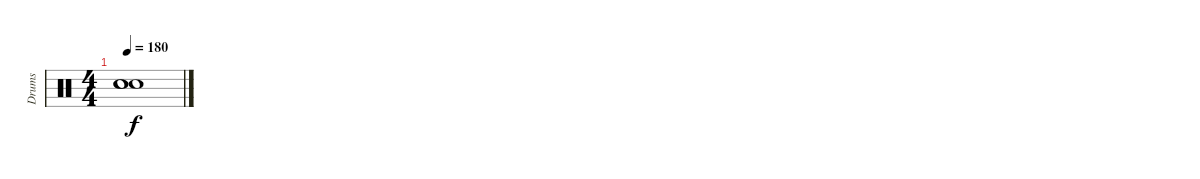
\track ("Drums" "Drums") {instrument percussion}
\staff {score}
\articulation defaults
\ts (4 4)
\tempo 180
\clef neutral
\ks c
("Snare (hit)"{t} "Snare (hit)"{t} "Snare (hit)"{t}).1{dy f}
